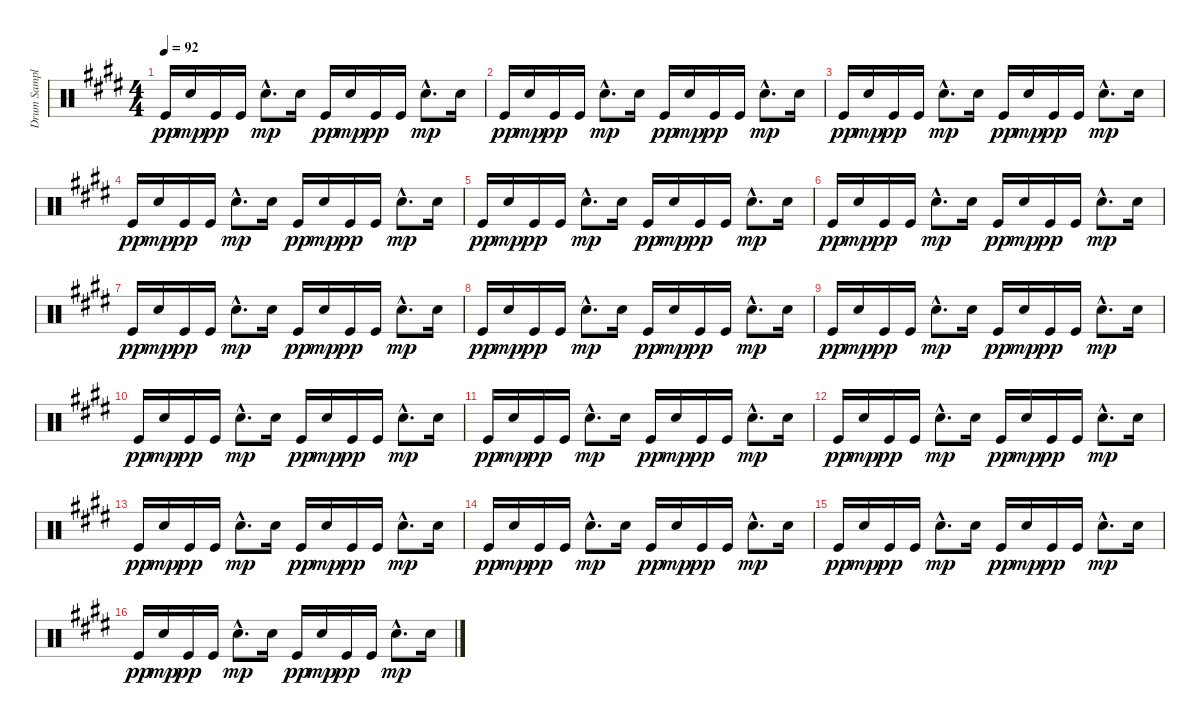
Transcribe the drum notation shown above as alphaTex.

\track ("Drum Sampler" "Drum Sampl") {instrument percussion}
\staff {score}
\articulation defaults
\ts (4 4)
\tempo 92
\clef neutral
\ks e "Kick (hit)".16{dy pp} "Electric Snare (hit)".16{dy mp} "Kick (hit)".16{dy pp} "Kick (hit)".16 "Electric Snare (hit)"{hac}.8{d dy mp} "Electric Snare (hit)".16 "Kick (hit)".16{dy pp} "Electric Snare (hit)".16{dy mp} "Kick (hit)".16{dy pp} "Kick (hit)".16 "Electric Snare (hit)"{hac}.8{d dy mp} "Electric Snare (hit)".16
|
"Kick (hit)".16{dy pp} "Electric Snare (hit)".16{dy mp} "Kick (hit)".16{dy pp} "Kick (hit)".16 "Electric Snare (hit)"{hac}.8{d dy mp} "Electric Snare (hit)".16 "Kick (hit)".16{dy pp} "Electric Snare (hit)".16{dy mp} "Kick (hit)".16{dy pp} "Kick (hit)".16 "Electric Snare (hit)"{hac}.8{d dy mp} "Electric Snare (hit)".16 |
"Kick (hit)".16{dy pp} "Electric Snare (hit)".16{dy mp} "Kick (hit)".16{dy pp} "Kick (hit)".16 "Electric Snare (hit)"{hac}.8{d dy mp} "Electric Snare (hit)".16 "Kick (hit)".16{dy pp} "Electric Snare (hit)".16{dy mp} "Kick (hit)".16{dy pp} "Kick (hit)".16 "Electric Snare (hit)"{hac}.8{d dy mp} "Electric Snare (hit)".16 |
"Kick (hit)".16{dy pp} "Electric Snare (hit)".16{dy mp} "Kick (hit)".16{dy pp} "Kick (hit)".16 "Electric Snare (hit)"{hac}.8{d dy mp} "Electric Snare (hit)".16 "Kick (hit)".16{dy pp} "Electric Snare (hit)".16{dy mp} "Kick (hit)".16{dy pp} "Kick (hit)".16 "Electric Snare (hit)"{hac}.8{d dy mp} "Electric Snare (hit)".16 |
"Kick (hit)".16{dy pp} "Electric Snare (hit)".16{dy mp} "Kick (hit)".16{dy pp} "Kick (hit)".16 "Electric Snare (hit)"{hac}.8{d dy mp} "Electric Snare (hit)".16 "Kick (hit)".16{dy pp} "Electric Snare (hit)".16{dy mp} "Kick (hit)".16{dy pp} "Kick (hit)".16 "Electric Snare (hit)"{hac}.8{d dy mp} "Electric Snare (hit)".16 |
"Kick (hit)".16{dy pp} "Electric Snare (hit)".16{dy mp} "Kick (hit)".16{dy pp} "Kick (hit)".16 "Electric Snare (hit)"{hac}.8{d dy mp} "Electric Snare (hit)".16 "Kick (hit)".16{dy pp} "Electric Snare (hit)".16{dy mp} "Kick (hit)".16{dy pp} "Kick (hit)".16 "Electric Snare (hit)"{hac}.8{d dy mp} "Electric Snare (hit)".16 |
"Kick (hit)".16{dy pp} "Electric Snare (hit)".16{dy mp} "Kick (hit)".16{dy pp} "Kick (hit)".16 "Electric Snare (hit)"{hac}.8{d dy mp} "Electric Snare (hit)".16 "Kick (hit)".16{dy pp} "Electric Snare (hit)".16{dy mp} "Kick (hit)".16{dy pp} "Kick (hit)".16 "Electric Snare (hit)"{hac}.8{d dy mp} "Electric Snare (hit)".16 |
"Kick (hit)".16{dy pp} "Electric Snare (hit)".16{dy mp} "Kick (hit)".16{dy pp} "Kick (hit)".16 "Electric Snare (hit)"{hac}.8{d dy mp} "Electric Snare (hit)".16 "Kick (hit)".16{dy pp} "Electric Snare (hit)".16{dy mp} "Kick (hit)".16{dy pp} "Kick (hit)".16 "Electric Snare (hit)"{hac}.8{d dy mp} "Electric Snare (hit)".16 |
"Kick (hit)".16{dy pp} "Electric Snare (hit)".16{dy mp} "Kick (hit)".16{dy pp} "Kick (hit)".16 "Electric Snare (hit)"{hac}.8{d dy mp} "Electric Snare (hit)".16 "Kick (hit)".16{dy pp} "Electric Snare (hit)".16{dy mp} "Kick (hit)".16{dy pp} "Kick (hit)".16 "Electric Snare (hit)"{hac}.8{d dy mp} "Electric Snare (hit)".16 |
"Kick (hit)".16{dy pp} "Electric Snare (hit)".16{dy mp} "Kick (hit)".16{dy pp} "Kick (hit)".16 "Electric Snare (hit)"{hac}.8{d dy mp} "Electric Snare (hit)".16 "Kick (hit)".16{dy pp} "Electric Snare (hit)".16{dy mp} "Kick (hit)".16{dy pp} "Kick (hit)".16 "Electric Snare (hit)"{hac}.8{d dy mp} "Electric Snare (hit)".16 |
"Kick (hit)".16{dy pp} "Electric Snare (hit)".16{dy mp} "Kick (hit)".16{dy pp} "Kick (hit)".16 "Electric Snare (hit)"{hac}.8{d dy mp} "Electric Snare (hit)".16 "Kick (hit)".16{dy pp} "Electric Snare (hit)".16{dy mp} "Kick (hit)".16{dy pp} "Kick (hit)".16 "Electric Snare (hit)"{hac}.8{d dy mp} "Electric Snare (hit)".16 |
"Kick (hit)".16{dy pp} "Electric Snare (hit)".16{dy mp} "Kick (hit)".16{dy pp} "Kick (hit)".16 "Electric Snare (hit)"{hac}.8{d dy mp} "Electric Snare (hit)".16 "Kick (hit)".16{dy pp} "Electric Snare (hit)".16{dy mp} "Kick (hit)".16{dy pp} "Kick (hit)".16 "Electric Snare (hit)"{hac}.8{d dy mp} "Electric Snare (hit)".16 |
"Kick (hit)".16{dy pp} "Electric Snare (hit)".16{dy mp} "Kick (hit)".16{dy pp} "Kick (hit)".16 "Electric Snare (hit)"{hac}.8{d dy mp} "Electric Snare (hit)".16 "Kick (hit)".16{dy pp} "Electric Snare (hit)".16{dy mp} "Kick (hit)".16{dy pp} "Kick (hit)".16 "Electric Snare (hit)"{hac}.8{d dy mp} "Electric Snare (hit)".16 |
"Kick (hit)".16{dy pp} "Electric Snare (hit)".16{dy mp} "Kick (hit)".16{dy pp} "Kick (hit)".16 "Electric Snare (hit)"{hac}.8{d dy mp} "Electric Snare (hit)".16 "Kick (hit)".16{dy pp} "Electric Snare (hit)".16{dy mp} "Kick (hit)".16{dy pp} "Kick (hit)".16 "Electric Snare (hit)"{hac}.8{d dy mp} "Electric Snare (hit)".16 |
"Kick (hit)".16{dy pp} "Electric Snare (hit)".16{dy mp} "Kick (hit)".16{dy pp} "Kick (hit)".16 "Electric Snare (hit)"{hac}.8{d dy mp} "Electric Snare (hit)".16 "Kick (hit)".16{dy pp} "Electric Snare (hit)".16{dy mp} "Kick (hit)".16{dy pp} "Kick (hit)".16 "Electric Snare (hit)"{hac}.8{d dy mp} "Electric Snare (hit)".16 |
"Kick (hit)".16{dy pp} "Electric Snare (hit)".16{dy mp} "Kick (hit)".16{dy pp} "Kick (hit)".16 "Electric Snare (hit)"{hac}.8{d dy mp} "Electric Snare (hit)".16 "Kick (hit)".16{dy pp} "Electric Snare (hit)".16{dy mp} "Kick (hit)".16{dy pp} "Kick (hit)".16 "Electric Snare (hit)"{hac}.8{d dy mp} "Electric Snare (hit)".16
